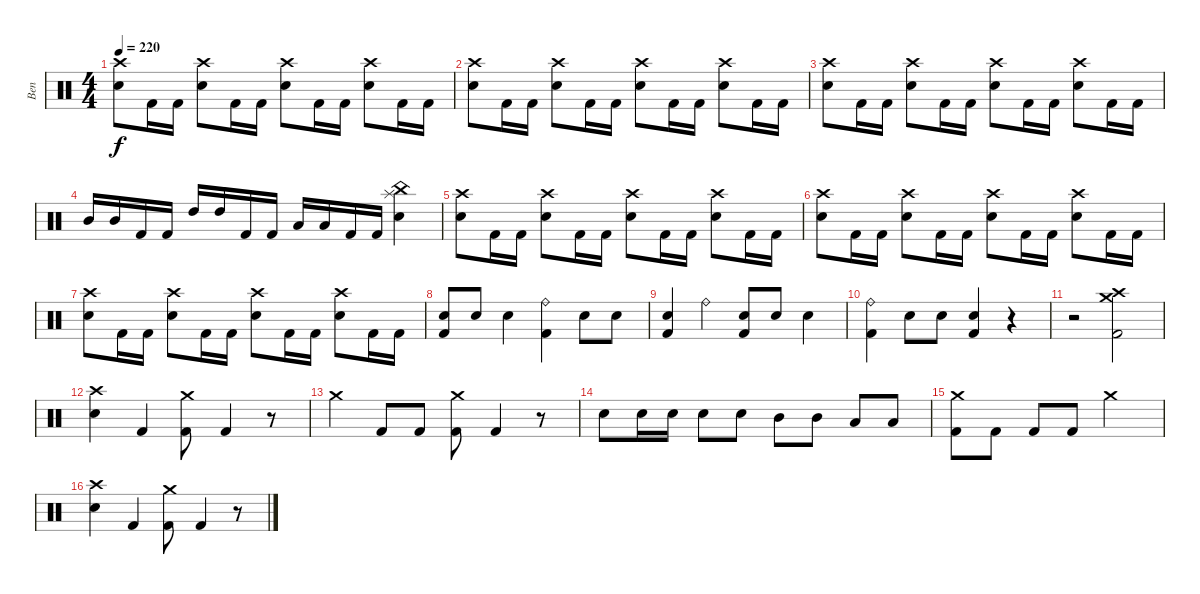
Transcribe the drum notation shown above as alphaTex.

\track ("Ben" "Ben") {instrument percussion}
\staff {score}
\articulation defaults
\ts (4 4)
\tempo 220
\clef neutral
\ks c
("Crash high (hit)" "Snare (hit) 2").8{dy f} "Kick (hit) 2".16 "Kick (hit) 2".16 ("Crash high (hit)" "Snare (hit) 2").8 "Kick (hit) 2".16 "Kick (hit) 2".16 ("Crash high (hit)" "Snare (hit) 2").8 "Kick (hit) 2".16 "Kick (hit) 2".16 ("Crash high (hit)" "Snare (hit) 2").8 "Kick (hit) 2".16 "Kick (hit) 2".16 |
("Crash high (hit)" "Snare (hit) 2").8 "Kick (hit) 2".16 "Kick (hit) 2".16 ("Crash high (hit)" "Snare (hit) 2").8 "Kick (hit) 2".16 "Kick (hit) 2".16 ("Crash high (hit)" "Snare (hit) 2").8 "Kick (hit) 2".16 "Kick (hit) 2".16 ("Crash high (hit)" "Snare (hit) 2").8 "Kick (hit) 2".16 "Kick (hit) 2".16 |
("Crash high (hit)" "Snare (hit) 2").8 "Kick (hit) 2".16 "Kick (hit) 2".16 ("Crash high (hit)" "Snare (hit) 2").8 "Kick (hit) 2".16 "Kick (hit) 2".16 ("Crash high (hit)" "Snare (hit) 2").8 "Kick (hit) 2".16 "Kick (hit) 2".16 ("Crash high (hit)" "Snare (hit) 2").8 "Kick (hit) 2".16 "Kick (hit) 2".16 |
"Mid Tom (hit)".16 "Mid Tom (hit)".16 "Kick (hit) 2".16 "Kick (hit) 2".16 "High Tom (hit)".16 "High Tom (hit)".16 "Kick (hit) 2".16 "Kick (hit) 2".16 "Low Tom (hit)".16 "Low Tom (hit)".16 "Kick (hit) 2".16 "Kick (hit) 2".16 ("China (hit)" "Splash (hit)" "Snare (hit) 2").4 |
("Crash high (hit)" "Snare (hit) 2").8 "Kick (hit) 2".16 "Kick (hit) 2".16 ("Crash high (hit)" "Snare (hit) 2").8 "Kick (hit) 2".16 "Kick (hit) 2".16 ("Crash high (hit)" "Snare (hit) 2").8 "Kick (hit) 2".16 "Kick (hit) 2".16 ("Crash high (hit)" "Snare (hit) 2").8 "Kick (hit) 2".16 "Kick (hit) 2".16 |
("Crash high (hit)" "Snare (hit) 2").8 "Kick (hit) 2".16 "Kick (hit) 2".16 ("Crash high (hit)" "Snare (hit) 2").8 "Kick (hit) 2".16 "Kick (hit) 2".16 ("Crash high (hit)" "Snare (hit) 2").8 "Kick (hit) 2".16 "Kick (hit) 2".16 ("Crash high (hit)" "Snare (hit) 2").8 "Kick (hit) 2".16 "Kick (hit) 2".16 |
("Crash high (hit)" "Snare (hit) 2").8 "Kick (hit) 2".16 "Kick (hit) 2".16 ("Crash high (hit)" "Snare (hit) 2").8 "Kick (hit) 2".16 "Kick (hit) 2".16 ("Crash high (hit)" "Snare (hit) 2").8 "Kick (hit) 2".16 "Kick (hit) 2".16 ("Crash high (hit)" "Snare (hit) 2").8 "Kick (hit) 2".16 "Kick (hit) 2".16 |
("Snare (hit) 2" "Kick (hit) 2").8 "Snare (hit) 2".8 "Snare (hit) 2".4 ("Ride (bell)" "Kick (hit) 2").4 "Snare (hit) 2".8 "Snare (hit) 2".8 |
("Snare (hit) 2" "Kick (hit) 2").4 "Ride (bell)".4 ("Snare (hit) 2" "Kick (hit) 2").8 "Snare (hit) 2".8 "Snare (hit) 2".4 |
("Ride (bell)" "Kick (hit) 2").4 "Snare (hit) 2".8 "Snare (hit) 2".8 ("Snare (hit) 2" "Kick (hit) 2").4 r.4 |
r.2 ("Crash medium (hit)" "Crash high (hit)" "Kick (hit) 2").2 |
("Crash high (hit)" "Snare (hit) 2").4 "Kick (hit) 2".4 ("Crash medium (hit)" "Kick (hit) 2").8 "Kick (hit) 2".4 r.8 |
"Crash medium (hit)".4 "Kick (hit) 2".8 "Kick (hit) 2".8 ("Crash medium (hit)" "Kick (hit) 2").8 "Kick (hit) 2".4 r.8 |
"Snare (hit) 2".8 "Snare (hit) 2".16 "Snare (hit) 2".16 "Snare (hit) 2".8 "Snare (hit) 2".8 "Mid Tom (hit)".8 "Mid Tom (hit)".8 "Low Tom (hit)".8 "Low Tom (hit)".8 |
("Crash medium (hit)" "Kick (hit) 2").8 "Kick (hit) 2".8 "Kick (hit) 2".8 "Kick (hit) 2".8 "Crash medium (hit)".2 |
("Crash high (hit)" "Snare (hit) 2").4 "Kick (hit) 2".4 ("Crash medium (hit)" "Kick (hit) 2").8 "Kick (hit) 2".4 r.8
